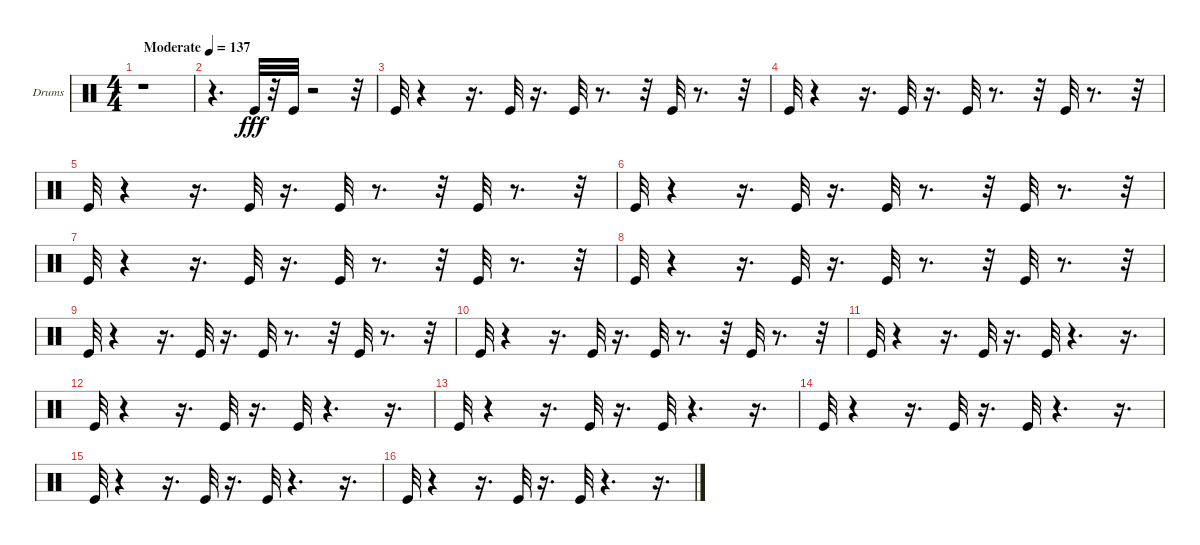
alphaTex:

\bracketExtendMode groupsimilarinstruments
\firstSystemTrackNameOrientation horizontal
\otherSystemsTrackNameOrientation horizontal
\track ("Drumkit" "Drums") {instrument percussion}
\staff {score}
\articulation defaults
\ts (4 4)
\beaming (8 2 2 2 2)
\tempo (137 "Moderate")
\clef neutral
\ks c
r.1{dy fff} |
r.4{d} "Kick (hit)".32 r.32 "Kick (hit)".32 r.2 r.32 |
"Kick (hit)".32 r.4 r.16{d} "Kick (hit)".32 r.16{d} "Kick (hit)".32 r.8{d} r.32 "Kick (hit)".32 r.8{d} r.32 |
"Kick (hit)".32 r.4 r.16{d} "Kick (hit)".32 r.16{d} "Kick (hit)".32 r.8{d} r.32 "Kick (hit)".32 r.8{d} r.32 |
"Kick (hit)".32 r.4 r.16{d} "Kick (hit)".32 r.16{d} "Kick (hit)".32 r.8{d} r.32 "Kick (hit)".32 r.8{d} r.32 |
"Kick (hit)".32 r.4 r.16{d} "Kick (hit)".32 r.16{d} "Kick (hit)".32 r.8{d} r.32 "Kick (hit)".32 r.8{d} r.32 |
"Kick (hit)".32 r.4 r.16{d} "Kick (hit)".32 r.16{d} "Kick (hit)".32 r.8{d} r.32 "Kick (hit)".32 r.8{d} r.32 |
"Kick (hit)".32 r.4 r.16{d} "Kick (hit)".32 r.16{d} "Kick (hit)".32 r.8{d} r.32 "Kick (hit)".32 r.8{d} r.32 |
"Kick (hit)".32 r.4 r.16{d} "Kick (hit)".32 r.16{d} "Kick (hit)".32 r.8{d} r.32 "Kick (hit)".32 r.8{d} r.32 |
"Kick (hit)".32 r.4 r.16{d} "Kick (hit)".32 r.16{d} "Kick (hit)".32 r.8{d} r.32 "Kick (hit)".32 r.8{d} r.32 |
"Kick (hit)".32 r.4 r.16{d} "Kick (hit)".32 r.16{d} "Kick (hit)".32 r.4{d} r.16{d} |
"Kick (hit)".32 r.4 r.16{d} "Kick (hit)".32 r.16{d} "Kick (hit)".32 r.4{d} r.16{d} |
"Kick (hit)".32 r.4 r.16{d} "Kick (hit)".32 r.16{d} "Kick (hit)".32 r.4{d} r.16{d} |
"Kick (hit)".32 r.4 r.16{d} "Kick (hit)".32 r.16{d} "Kick (hit)".32 r.4{d} r.16{d} |
"Kick (hit)".32 r.4 r.16{d} "Kick (hit)".32 r.16{d} "Kick (hit)".32 r.4{d} r.16{d} |
"Kick (hit)".32 r.4 r.16{d} "Kick (hit)".32 r.16{d} "Kick (hit)".32 r.4{d} r.16{d}
